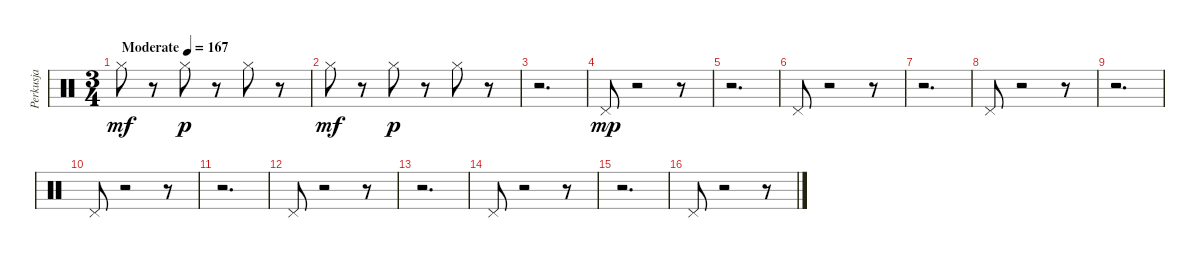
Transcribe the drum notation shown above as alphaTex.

\track ("Perkusja" "Perkusja") {instrument percussion}
\staff {score}
\articulation defaults
\ts (3 4)
\tempo (167 "Moderate")
\clef neutral
\ks c "Hi-Hat (closed)".8{dy mf}
r.8 "Hi-Hat (closed)".8{dy p} r.8 "Hi-Hat (closed)".8{volume 16 balance 8} r.8 |
"Hi-Hat (closed)".8{dy mf} r.8 "Hi-Hat (closed)".8{dy p} r.8 "Hi-Hat (closed)".8 r.8 |
r.2{d} |
"Pedal Hi-Hat (hit)".8{dy mp} r.2 r.8 |
r.2{d} |
"Pedal Hi-Hat (hit)".8 r.2 r.8 |
r.2{d} |
"Pedal Hi-Hat (hit)".8 r.2 r.8 |
r.2{d} |
"Pedal Hi-Hat (hit)".8 r.2 r.8 |
r.2{d} |
"Pedal Hi-Hat (hit)".8 r.2 r.8 |
r.2{d} |
"Pedal Hi-Hat (hit)".8 r.2 r.8 |
r.2{d} |
"Pedal Hi-Hat (hit)".8 r.2 r.8
